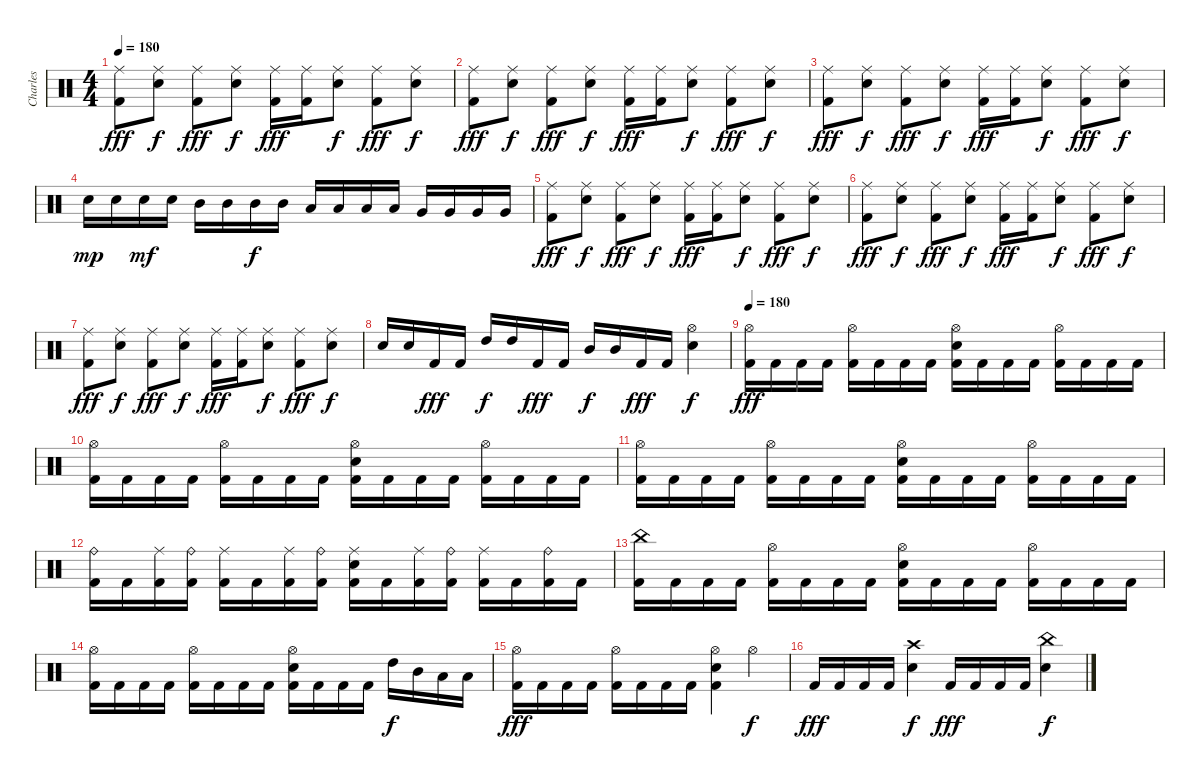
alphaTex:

\track ("Charles" "Charles") {instrument percussion}
\staff {score}
\articulation defaults
\ts (4 4)
\tempo 180
\clef neutral
\ks c
("Ride (middle)" "Kick (hit) 2").8{dy fff} ("Ride (middle)" "Electric Snare (hit)").8{dy f} ("Ride (middle)" "Kick (hit) 2").8{dy fff} ("Ride (middle)" "Electric Snare (hit)").8{dy f} ("Ride (middle)" "Kick (hit) 2").16{dy fff} ("Ride (middle)" "Kick (hit) 2").16 ("Ride (middle)" "Electric Snare (hit)").8{dy f} ("Ride (middle)" "Kick (hit) 2").8{dy fff} ("Ride (middle)" "Electric Snare (hit)").8{dy f} |
("Ride (middle)" "Kick (hit) 2").8{dy fff} ("Ride (middle)" "Electric Snare (hit)").8{dy f} ("Ride (middle)" "Kick (hit) 2").8{dy fff} ("Ride (middle)" "Electric Snare (hit)").8{dy f} ("Ride (middle)" "Kick (hit) 2").16{dy fff} ("Ride (middle)" "Kick (hit) 2").16 ("Ride (middle)" "Electric Snare (hit)").8{dy f} ("Ride (middle)" "Kick (hit) 2").8{dy fff} ("Ride (middle)" "Electric Snare (hit)").8{dy f} |
("Ride (middle)" "Kick (hit) 2").8{dy fff} ("Ride (middle)" "Electric Snare (hit)").8{dy f} ("Ride (middle)" "Kick (hit) 2").8{dy fff} ("Ride (middle)" "Electric Snare (hit)").8{dy f} ("Ride (middle)" "Kick (hit) 2").16{dy fff} ("Ride (middle)" "Kick (hit) 2").16 ("Ride (middle)" "Electric Snare (hit)").8{dy f} ("Ride (middle)" "Kick (hit) 2").8{dy fff} ("Ride (middle)" "Electric Snare (hit)").8{dy f} |
"Electric Snare (hit)".16{dy mp} "Electric Snare (hit)".16 "Electric Snare (hit)".16{dy mf} "Electric Snare (hit)".16 "Mid Tom (hit)".16 "Mid Tom (hit)".16 "Mid Tom (hit)".16{dy f} "Mid Tom (hit)".16 "Low Tom (hit)".16 "Low Tom (hit)".16 "Low Tom (hit)".16 "Low Tom (hit)".16 "Very Low Tom (hit)".16 "Very Low Tom (hit)".16 "Very Low Tom (hit)".16 "Very Low Tom (hit)".16 |
("Ride (middle)" "Kick (hit) 2").8{dy fff} ("Ride (middle)" "Electric Snare (hit)").8{dy f} ("Ride (middle)" "Kick (hit) 2").8{dy fff} ("Ride (middle)" "Electric Snare (hit)").8{dy f} ("Ride (middle)" "Kick (hit) 2").16{dy fff} ("Ride (middle)" "Kick (hit) 2").16 ("Ride (middle)" "Electric Snare (hit)").8{dy f} ("Ride (middle)" "Kick (hit) 2").8{dy fff} ("Ride (middle)" "Electric Snare (hit)").8{dy f} |
("Ride (middle)" "Kick (hit) 2").8{dy fff} ("Ride (middle)" "Electric Snare (hit)").8{dy f} ("Ride (middle)" "Kick (hit) 2").8{dy fff} ("Ride (middle)" "Electric Snare (hit)").8{dy f} ("Ride (middle)" "Kick (hit) 2").16{dy fff} ("Ride (middle)" "Kick (hit) 2").16 ("Ride (middle)" "Electric Snare (hit)").8{dy f} ("Ride (middle)" "Kick (hit) 2").8{dy fff} ("Ride (middle)" "Electric Snare (hit)").8{dy f} |
("Ride (middle)" "Kick (hit) 2").8{dy fff} ("Ride (middle)" "Electric Snare (hit)").8{dy f} ("Ride (middle)" "Kick (hit) 2").8{dy fff} ("Ride (middle)" "Electric Snare (hit)").8{dy f} ("Ride (middle)" "Kick (hit) 2").16{dy fff} ("Ride (middle)" "Kick (hit) 2").16 ("Ride (middle)" "Electric Snare (hit)").8{dy f} ("Ride (middle)" "Kick (hit) 2").8{dy fff} ("Ride (middle)" "Electric Snare (hit)").8{dy f} |
"Electric Snare (hit)".16 "Electric Snare (hit)".16 "Kick (hit) 2".16{dy fff} "Kick (hit) 2".16 "High Tom (hit)".16{dy f} "High Tom (hit)".16 "Kick (hit) 2".16{dy fff} "Kick (hit) 2".16 "Mid Tom (hit)".16{dy f} "Mid Tom (hit)".16 "Kick (hit) 2".16{dy fff} "Kick (hit) 2".16 ("Hi-Hat (open)" "Electric Snare (hit)").4{dy f} |
\tempo 180
("Hi-Hat (open)" "Kick (hit) 2").16{dy fff} "Kick (hit) 2".16 "Kick (hit) 2".16 "Kick (hit) 2".16 ("Hi-Hat (open)" "Kick (hit) 2").16 "Kick (hit) 2".16 "Kick (hit) 2".16 "Kick (hit) 2".16 ("Hi-Hat (open)" "Electric Snare (hit)" "Kick (hit) 2").16 "Kick (hit) 2".16 "Kick (hit) 2".16 "Kick (hit) 2".16 ("Hi-Hat (open)" "Kick (hit) 2").16 "Kick (hit) 2".16 "Kick (hit) 2".16 "Kick (hit) 2".16 |
("Hi-Hat (open)" "Kick (hit) 2").16 "Kick (hit) 2".16 "Kick (hit) 2".16 "Kick (hit) 2".16 ("Hi-Hat (open)" "Kick (hit) 2").16 "Kick (hit) 2".16 "Kick (hit) 2".16 "Kick (hit) 2".16 ("Hi-Hat (open)" "Electric Snare (hit)" "Kick (hit) 2").16 "Kick (hit) 2".16 "Kick (hit) 2".16 "Kick (hit) 2".16 ("Hi-Hat (open)" "Kick (hit) 2").16 "Kick (hit) 2".16 "Kick (hit) 2".16 "Kick (hit) 2".16 |
("Hi-Hat (open)" "Kick (hit) 2").16 "Kick (hit) 2".16 "Kick (hit) 2".16 "Kick (hit) 2".16 ("Hi-Hat (open)" "Kick (hit) 2").16 "Kick (hit) 2".16 "Kick (hit) 2".16 "Kick (hit) 2".16 ("Hi-Hat (open)" "Electric Snare (hit)" "Kick (hit) 2").16 "Kick (hit) 2".16 "Kick (hit) 2".16 "Kick (hit) 2".16 ("Hi-Hat (open)" "Kick (hit) 2").16 "Kick (hit) 2".16 "Kick (hit) 2".16 "Kick (hit) 2".16 |
("Ride (bell)" "Kick (hit) 2").16 "Kick (hit) 2".16 ("Ride (middle)" "Kick (hit) 2").16 ("Ride (bell)" "Kick (hit) 2").16 ("Ride (middle)" "Kick (hit) 2").16 "Kick (hit) 2".16 ("Ride (middle)" "Kick (hit) 2").16 ("Ride (bell)" "Kick (hit) 2").16 ("Electric Snare (hit)" "Ride (middle)" "Kick (hit) 2").16 "Kick (hit) 2".16 ("Ride (middle)" "Kick (hit) 2").16 ("Ride (bell)" "Kick (hit) 2").16 ("Ride (middle)" "Kick (hit) 2").16 "Kick (hit) 2".16 ("Ride (bell)" "Kick (hit) 2").16 "Kick (hit) 2".16 |
("China (hit)" "Kick (hit) 2").16 "Kick (hit) 2".16 "Kick (hit) 2".16 "Kick (hit) 2".16 ("Hi-Hat (open)" "Kick (hit) 2").16 "Kick (hit) 2".16 "Kick (hit) 2".16 "Kick (hit) 2".16 ("Hi-Hat (open)" "Electric Snare (hit)" "Kick (hit) 2").16 "Kick (hit) 2".16 "Kick (hit) 2".16 "Kick (hit) 2".16 ("Hi-Hat (open)" "Kick (hit) 2").16 "Kick (hit) 2".16 "Kick (hit) 2".16 "Kick (hit) 2".16 |
("Hi-Hat (open)" "Kick (hit) 2").16 "Kick (hit) 2".16 "Kick (hit) 2".16 "Kick (hit) 2".16 ("Hi-Hat (open)" "Kick (hit) 2").16 "Kick (hit) 2".16 "Kick (hit) 2".16 "Kick (hit) 2".16 ("Hi-Hat (open)" "Electric Snare (hit)" "Kick (hit) 2").16 "Kick (hit) 2".16 "Kick (hit) 2".16 "Kick (hit) 2".16 "High Tom (hit)".16{dy f} "Mid Tom (hit)".16 "Low Tom (hit)".16 "Low Tom (hit)".16 |
("Hi-Hat (open)" "Kick (hit) 2").16{dy fff} "Kick (hit) 2".16 "Kick (hit) 2".16 "Kick (hit) 2".16 ("Hi-Hat (open)" "Kick (hit) 2").16 "Kick (hit) 2".16 "Kick (hit) 2".16 "Kick (hit) 2".16 ("Hi-Hat (open)" "Electric Snare (hit)" "Kick (hit) 2").4 "Hi-Hat (open)".4{dy f} |
"Kick (hit) 2".16{dy fff} "Kick (hit) 2".16 "Kick (hit) 2".16 "Kick (hit) 2".16 ("Crash high (hit)" "Electric Snare (hit)").4{dy f} "Kick (hit) 2".16{dy fff} "Kick (hit) 2".16 "Kick (hit) 2".16 "Kick (hit) 2".16 ("China (hit)" "Electric Snare (hit)").4{dy f}
